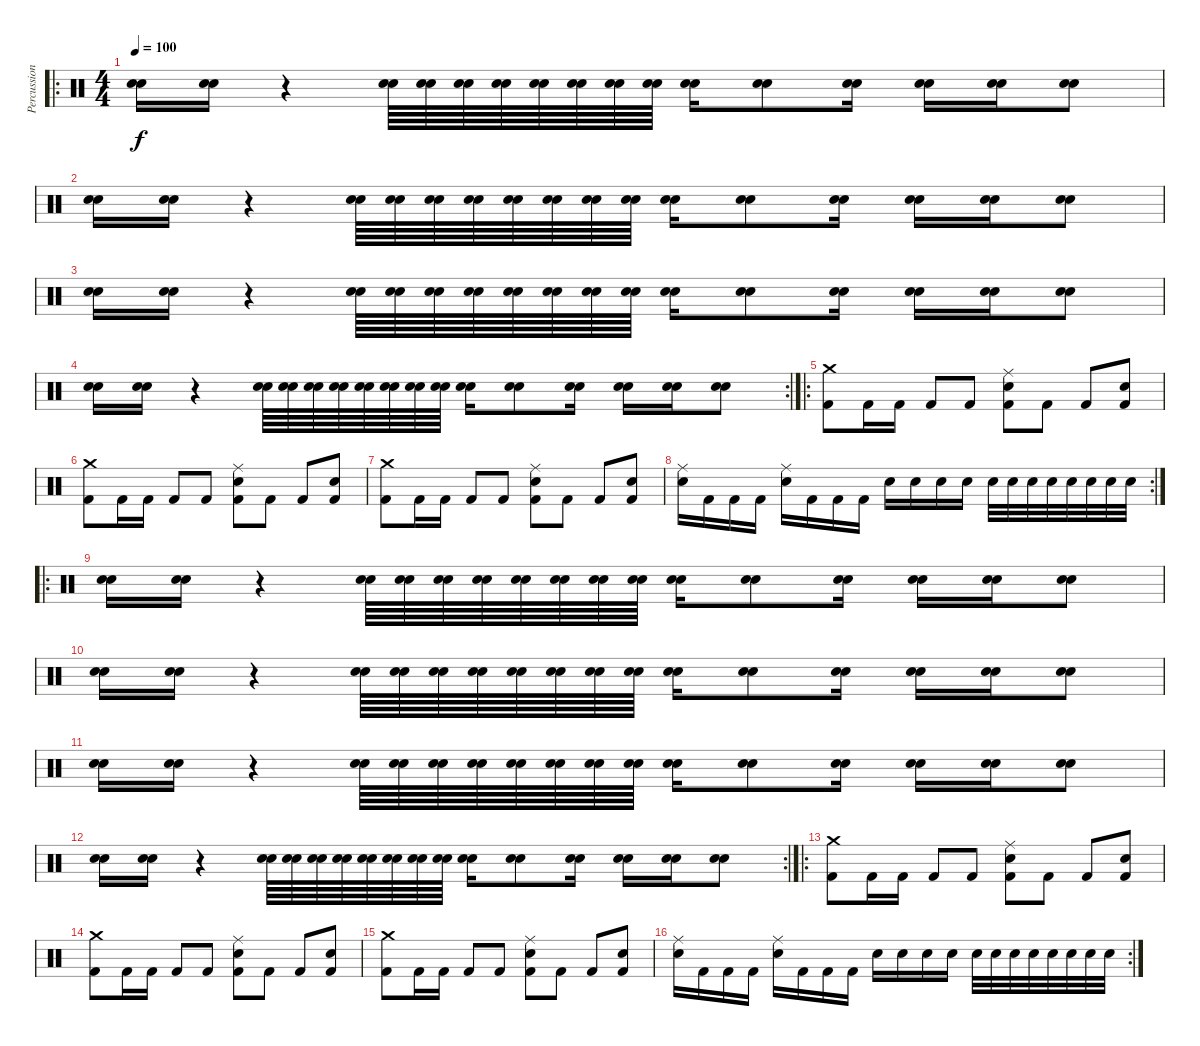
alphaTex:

\track ("Percussions" "Percussion") {instrument percussion}
\staff {score}
\articulation defaults
\ro
\ts (4 4)
\tempo 100
\clef neutral
\ks c
("Snare (hit) 2" "Electric Snare (hit)").16{dy f} ("Snare (hit) 2" "Electric Snare (hit)").16 r.4 ("Snare (hit) 2" "Electric Snare (hit)").64 ("Snare (hit) 2" "Electric Snare (hit)").64 ("Snare (hit) 2" "Electric Snare (hit)").64 ("Snare (hit) 2" "Electric Snare (hit)").64 ("Snare (hit) 2" "Electric Snare (hit)").64 ("Snare (hit) 2" "Electric Snare (hit)").64 ("Snare (hit) 2" "Electric Snare (hit)").64 ("Snare (hit) 2" "Electric Snare (hit)").64 ("Snare (hit) 2" "Electric Snare (hit)").16 ("Snare (hit) 2" "Electric Snare (hit)").8 ("Snare (hit) 2" "Electric Snare (hit)").16 ("Snare (hit) 2" "Electric Snare (hit)").16 ("Snare (hit) 2" "Electric Snare (hit)").16 ("Snare (hit) 2" "Electric Snare (hit)").8 |
("Snare (hit) 2" "Electric Snare (hit)").16 ("Snare (hit) 2" "Electric Snare (hit)").16 r.4 ("Snare (hit) 2" "Electric Snare (hit)").64 ("Snare (hit) 2" "Electric Snare (hit)").64 ("Snare (hit) 2" "Electric Snare (hit)").64 ("Snare (hit) 2" "Electric Snare (hit)").64 ("Snare (hit) 2" "Electric Snare (hit)").64 ("Snare (hit) 2" "Electric Snare (hit)").64 ("Snare (hit) 2" "Electric Snare (hit)").64 ("Snare (hit) 2" "Electric Snare (hit)").64 ("Snare (hit) 2" "Electric Snare (hit)").16 ("Snare (hit) 2" "Electric Snare (hit)").8 ("Snare (hit) 2" "Electric Snare (hit)").16 ("Snare (hit) 2" "Electric Snare (hit)").16 ("Snare (hit) 2" "Electric Snare (hit)").16 ("Snare (hit) 2" "Electric Snare (hit)").8 |
("Snare (hit) 2" "Electric Snare (hit)").16 ("Snare (hit) 2" "Electric Snare (hit)").16 r.4 ("Snare (hit) 2" "Electric Snare (hit)").64 ("Snare (hit) 2" "Electric Snare (hit)").64 ("Snare (hit) 2" "Electric Snare (hit)").64 ("Snare (hit) 2" "Electric Snare (hit)").64 ("Snare (hit) 2" "Electric Snare (hit)").64 ("Snare (hit) 2" "Electric Snare (hit)").64 ("Snare (hit) 2" "Electric Snare (hit)").64 ("Snare (hit) 2" "Electric Snare (hit)").64 ("Snare (hit) 2" "Electric Snare (hit)").16 ("Snare (hit) 2" "Electric Snare (hit)").8 ("Snare (hit) 2" "Electric Snare (hit)").16 ("Snare (hit) 2" "Electric Snare (hit)").16 ("Snare (hit) 2" "Electric Snare (hit)").16 ("Snare (hit) 2" "Electric Snare (hit)").8 |
\rc 2
("Snare (hit) 2" "Electric Snare (hit)").16 ("Snare (hit) 2" "Electric Snare (hit)").16 r.4 ("Snare (hit) 2" "Electric Snare (hit)").64 ("Snare (hit) 2" "Electric Snare (hit)").64 ("Snare (hit) 2" "Electric Snare (hit)").64 ("Snare (hit) 2" "Electric Snare (hit)").64 ("Snare (hit) 2" "Electric Snare (hit)").64 ("Snare (hit) 2" "Electric Snare (hit)").64 ("Snare (hit) 2" "Electric Snare (hit)").64 ("Snare (hit) 2" "Electric Snare (hit)").64 ("Snare (hit) 2" "Electric Snare (hit)").16 ("Snare (hit) 2" "Electric Snare (hit)").8 ("Snare (hit) 2" "Electric Snare (hit)").16 ("Snare (hit) 2" "Electric Snare (hit)").16 ("Snare (hit) 2" "Electric Snare (hit)").16 ("Snare (hit) 2" "Electric Snare (hit)").8 |
\ro
("Crash medium (hit)" "Kick (hit) 2").8 "Kick (hit) 2".16 "Kick (hit) 2".16 "Kick (hit) 2".8 "Kick (hit) 2".8 ("Ride (middle)" "Snare (hit) 2" "Kick (hit) 2").8 "Kick (hit) 2".8 "Kick (hit) 2".8 ("Snare (hit) 2" "Kick (hit) 2").8 |
("Crash medium (hit)" "Kick (hit) 2").8 "Kick (hit) 2".16 "Kick (hit) 2".16 "Kick (hit) 2".8 "Kick (hit) 2".8 ("Ride (middle)" "Snare (hit) 2" "Kick (hit) 2").8 "Kick (hit) 2".8 "Kick (hit) 2".8 ("Snare (hit) 2" "Kick (hit) 2").8 |
("Crash medium (hit)" "Kick (hit) 2").8 "Kick (hit) 2".16 "Kick (hit) 2".16 "Kick (hit) 2".8 "Kick (hit) 2".8 ("Ride (middle)" "Snare (hit) 2" "Kick (hit) 2").8 "Kick (hit) 2".8 "Kick (hit) 2".8 ("Snare (hit) 2" "Kick (hit) 2").8 |
\rc 2
("Ride (middle)" "Snare (hit) 2").16 "Kick (hit) 2".16 "Kick (hit) 2".16 "Kick (hit) 2".16 ("Ride (middle)" "Snare (hit) 2").16 "Kick (hit) 2".16 "Kick (hit) 2".16 "Kick (hit) 2".16 "Snare (hit) 2".16 "Snare (hit) 2".16 "Snare (hit) 2".16 "Snare (hit) 2".16 "Snare (hit) 2".32 "Snare (hit) 2".32 "Snare (hit) 2".32 "Snare (hit) 2".32 "Snare (hit) 2".32 "Snare (hit) 2".32 "Snare (hit) 2".32 "Snare (hit) 2".32 |
\ro
("Snare (hit) 2" "Electric Snare (hit)").16 ("Snare (hit) 2" "Electric Snare (hit)").16 r.4 ("Snare (hit) 2" "Electric Snare (hit)").64 ("Snare (hit) 2" "Electric Snare (hit)").64 ("Snare (hit) 2" "Electric Snare (hit)").64 ("Snare (hit) 2" "Electric Snare (hit)").64 ("Snare (hit) 2" "Electric Snare (hit)").64 ("Snare (hit) 2" "Electric Snare (hit)").64 ("Snare (hit) 2" "Electric Snare (hit)").64 ("Snare (hit) 2" "Electric Snare (hit)").64 ("Snare (hit) 2" "Electric Snare (hit)").16 ("Snare (hit) 2" "Electric Snare (hit)").8 ("Snare (hit) 2" "Electric Snare (hit)").16 ("Snare (hit) 2" "Electric Snare (hit)").16 ("Snare (hit) 2" "Electric Snare (hit)").16 ("Snare (hit) 2" "Electric Snare (hit)").8 |
("Snare (hit) 2" "Electric Snare (hit)").16 ("Snare (hit) 2" "Electric Snare (hit)").16 r.4 ("Snare (hit) 2" "Electric Snare (hit)").64 ("Snare (hit) 2" "Electric Snare (hit)").64 ("Snare (hit) 2" "Electric Snare (hit)").64 ("Snare (hit) 2" "Electric Snare (hit)").64 ("Snare (hit) 2" "Electric Snare (hit)").64 ("Snare (hit) 2" "Electric Snare (hit)").64 ("Snare (hit) 2" "Electric Snare (hit)").64 ("Snare (hit) 2" "Electric Snare (hit)").64 ("Snare (hit) 2" "Electric Snare (hit)").16 ("Snare (hit) 2" "Electric Snare (hit)").8 ("Snare (hit) 2" "Electric Snare (hit)").16 ("Snare (hit) 2" "Electric Snare (hit)").16 ("Snare (hit) 2" "Electric Snare (hit)").16 ("Snare (hit) 2" "Electric Snare (hit)").8 |
("Snare (hit) 2" "Electric Snare (hit)").16 ("Snare (hit) 2" "Electric Snare (hit)").16 r.4 ("Snare (hit) 2" "Electric Snare (hit)").64 ("Snare (hit) 2" "Electric Snare (hit)").64 ("Snare (hit) 2" "Electric Snare (hit)").64 ("Snare (hit) 2" "Electric Snare (hit)").64 ("Snare (hit) 2" "Electric Snare (hit)").64 ("Snare (hit) 2" "Electric Snare (hit)").64 ("Snare (hit) 2" "Electric Snare (hit)").64 ("Snare (hit) 2" "Electric Snare (hit)").64 ("Snare (hit) 2" "Electric Snare (hit)").16 ("Snare (hit) 2" "Electric Snare (hit)").8 ("Snare (hit) 2" "Electric Snare (hit)").16 ("Snare (hit) 2" "Electric Snare (hit)").16 ("Snare (hit) 2" "Electric Snare (hit)").16 ("Snare (hit) 2" "Electric Snare (hit)").8 |
\rc 2
("Snare (hit) 2" "Electric Snare (hit)").16 ("Snare (hit) 2" "Electric Snare (hit)").16 r.4 ("Snare (hit) 2" "Electric Snare (hit)").64 ("Snare (hit) 2" "Electric Snare (hit)").64 ("Snare (hit) 2" "Electric Snare (hit)").64 ("Snare (hit) 2" "Electric Snare (hit)").64 ("Snare (hit) 2" "Electric Snare (hit)").64 ("Snare (hit) 2" "Electric Snare (hit)").64 ("Snare (hit) 2" "Electric Snare (hit)").64 ("Snare (hit) 2" "Electric Snare (hit)").64 ("Snare (hit) 2" "Electric Snare (hit)").16 ("Snare (hit) 2" "Electric Snare (hit)").8 ("Snare (hit) 2" "Electric Snare (hit)").16 ("Snare (hit) 2" "Electric Snare (hit)").16 ("Snare (hit) 2" "Electric Snare (hit)").16 ("Snare (hit) 2" "Electric Snare (hit)").8 |
\ro
("Crash medium (hit)" "Kick (hit) 2").8 "Kick (hit) 2".16 "Kick (hit) 2".16 "Kick (hit) 2".8 "Kick (hit) 2".8 ("Ride (middle)" "Snare (hit) 2" "Kick (hit) 2").8 "Kick (hit) 2".8 "Kick (hit) 2".8 ("Snare (hit) 2" "Kick (hit) 2").8 |
("Crash medium (hit)" "Kick (hit) 2").8 "Kick (hit) 2".16 "Kick (hit) 2".16 "Kick (hit) 2".8 "Kick (hit) 2".8 ("Ride (middle)" "Snare (hit) 2" "Kick (hit) 2").8 "Kick (hit) 2".8 "Kick (hit) 2".8 ("Snare (hit) 2" "Kick (hit) 2").8 |
("Crash medium (hit)" "Kick (hit) 2").8 "Kick (hit) 2".16 "Kick (hit) 2".16 "Kick (hit) 2".8 "Kick (hit) 2".8 ("Ride (middle)" "Snare (hit) 2" "Kick (hit) 2").8 "Kick (hit) 2".8 "Kick (hit) 2".8 ("Snare (hit) 2" "Kick (hit) 2").8 |
\rc 2
("Ride (middle)" "Snare (hit) 2").16 "Kick (hit) 2".16 "Kick (hit) 2".16 "Kick (hit) 2".16 ("Ride (middle)" "Snare (hit) 2").16 "Kick (hit) 2".16 "Kick (hit) 2".16 "Kick (hit) 2".16 "Snare (hit) 2".16 "Snare (hit) 2".16 "Snare (hit) 2".16 "Snare (hit) 2".16 "Snare (hit) 2".32 "Snare (hit) 2".32 "Snare (hit) 2".32 "Snare (hit) 2".32 "Snare (hit) 2".32 "Snare (hit) 2".32 "Snare (hit) 2".32 "Snare (hit) 2".32
